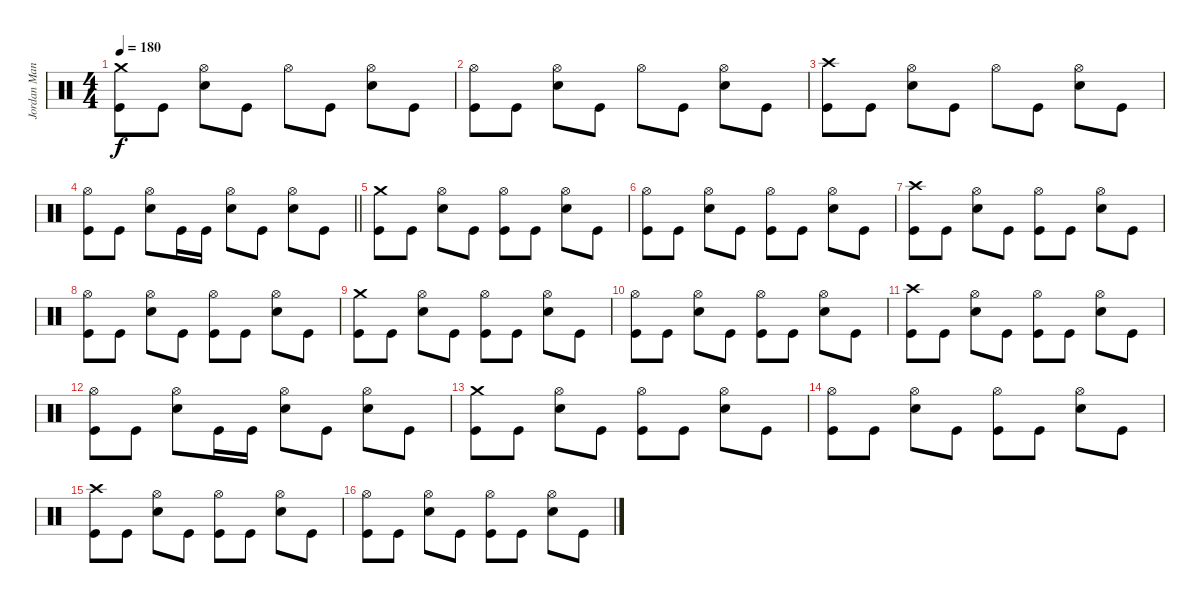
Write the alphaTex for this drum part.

\track ("Jordan Mancino" "Jordan Man") {instrument percussion}
\staff {score}
\articulation defaults
\ts (4 4)
\tempo 180
\clef neutral
\ks c
("Crash medium (hit)" "Kick (hit)").8{dy f} "Kick (hit)".8 ("Hi-Hat (open)" "Snare (hit) 2").8 "Kick (hit)".8 "Hi-Hat (open)".8 "Kick (hit)".8 ("Hi-Hat (open)" "Snare (hit) 2").8 "Kick (hit)".8 |
("Hi-Hat (open)" "Kick (hit)").8 "Kick (hit)".8 ("Hi-Hat (open)" "Snare (hit) 2").8 "Kick (hit)".8 "Hi-Hat (open)".8 "Kick (hit)".8 ("Hi-Hat (open)" "Snare (hit) 2").8 "Kick (hit)".8 |
("Crash high (hit)" "Kick (hit)").8 "Kick (hit)".8 ("Hi-Hat (open)" "Snare (hit) 2").8 "Kick (hit)".8 "Hi-Hat (open)".8 "Kick (hit)".8 ("Hi-Hat (open)" "Snare (hit) 2").8 "Kick (hit)".8 |
\barLineRight lightlight
("Hi-Hat (open)" "Kick (hit)").8 "Kick (hit)".8 ("Hi-Hat (open)" "Snare (hit) 2").8 "Kick (hit)".16 "Kick (hit)".16 ("Hi-Hat (open)" "Snare (hit) 2").8 "Kick (hit)".8 ("Hi-Hat (open)" "Snare (hit) 2").8 "Kick (hit)".8 |
("Crash medium (hit)" "Kick (hit)").8 "Kick (hit)".8 ("Hi-Hat (open)" "Snare (hit) 2").8 "Kick (hit)".8 ("Hi-Hat (open)" "Kick (hit)").8 "Kick (hit)".8 ("Hi-Hat (open)" "Snare (hit) 2").8 "Kick (hit)".8 |
("Hi-Hat (open)" "Kick (hit)").8 "Kick (hit)".8 ("Hi-Hat (open)" "Snare (hit) 2").8 "Kick (hit)".8 ("Hi-Hat (open)" "Kick (hit)").8 "Kick (hit)".8 ("Hi-Hat (open)" "Snare (hit) 2").8 "Kick (hit)".8 |
("Crash high (hit)" "Kick (hit)").8 "Kick (hit)".8 ("Hi-Hat (open)" "Snare (hit) 2").8 "Kick (hit)".8 ("Hi-Hat (open)" "Kick (hit)").8 "Kick (hit)".8 ("Hi-Hat (open)" "Snare (hit) 2").8 "Kick (hit)".8 |
("Hi-Hat (open)" "Kick (hit)").8 "Kick (hit)".8 ("Hi-Hat (open)" "Snare (hit) 2").8 "Kick (hit)".8 ("Hi-Hat (open)" "Kick (hit)").8 "Kick (hit)".8 ("Hi-Hat (open)" "Snare (hit) 2").8 "Kick (hit)".8 |
("Crash medium (hit)" "Kick (hit)").8 "Kick (hit)".8 ("Hi-Hat (open)" "Snare (hit) 2").8 "Kick (hit)".8 ("Hi-Hat (open)" "Kick (hit)").8 "Kick (hit)".8 ("Hi-Hat (open)" "Snare (hit) 2").8 "Kick (hit)".8 |
("Hi-Hat (open)" "Kick (hit)").8 "Kick (hit)".8 ("Hi-Hat (open)" "Snare (hit) 2").8 "Kick (hit)".8 ("Hi-Hat (open)" "Kick (hit)").8 "Kick (hit)".8 ("Hi-Hat (open)" "Snare (hit) 2").8 "Kick (hit)".8 |
("Crash high (hit)" "Kick (hit)").8 "Kick (hit)".8 ("Hi-Hat (open)" "Snare (hit) 2").8 "Kick (hit)".8 ("Hi-Hat (open)" "Kick (hit)").8 "Kick (hit)".8 ("Hi-Hat (open)" "Snare (hit) 2").8 "Kick (hit)".8 |
("Hi-Hat (open)" "Kick (hit)").8 "Kick (hit)".8 ("Hi-Hat (open)" "Snare (hit) 2").8 "Kick (hit)".16 "Kick (hit)".16 ("Hi-Hat (open)" "Snare (hit) 2").8 "Kick (hit)".8 ("Hi-Hat (open)" "Snare (hit) 2").8 "Kick (hit)".8 |
("Crash medium (hit)" "Kick (hit)").8 "Kick (hit)".8 ("Hi-Hat (open)" "Snare (hit) 2").8 "Kick (hit)".8 ("Hi-Hat (open)" "Kick (hit)").8 "Kick (hit)".8 ("Hi-Hat (open)" "Snare (hit) 2").8 "Kick (hit)".8 |
("Hi-Hat (open)" "Kick (hit)").8 "Kick (hit)".8 ("Hi-Hat (open)" "Snare (hit) 2").8 "Kick (hit)".8 ("Hi-Hat (open)" "Kick (hit)").8 "Kick (hit)".8 ("Hi-Hat (open)" "Snare (hit) 2").8 "Kick (hit)".8 |
("Crash high (hit)" "Kick (hit)").8 "Kick (hit)".8 ("Hi-Hat (open)" "Snare (hit) 2").8 "Kick (hit)".8 ("Hi-Hat (open)" "Kick (hit)").8 "Kick (hit)".8 ("Hi-Hat (open)" "Snare (hit) 2").8 "Kick (hit)".8 |
("Hi-Hat (open)" "Kick (hit)").8 "Kick (hit)".8 ("Hi-Hat (open)" "Snare (hit) 2").8 "Kick (hit)".8 ("Hi-Hat (open)" "Kick (hit)").8 "Kick (hit)".8 ("Hi-Hat (open)" "Snare (hit) 2").8 "Kick (hit)".8
